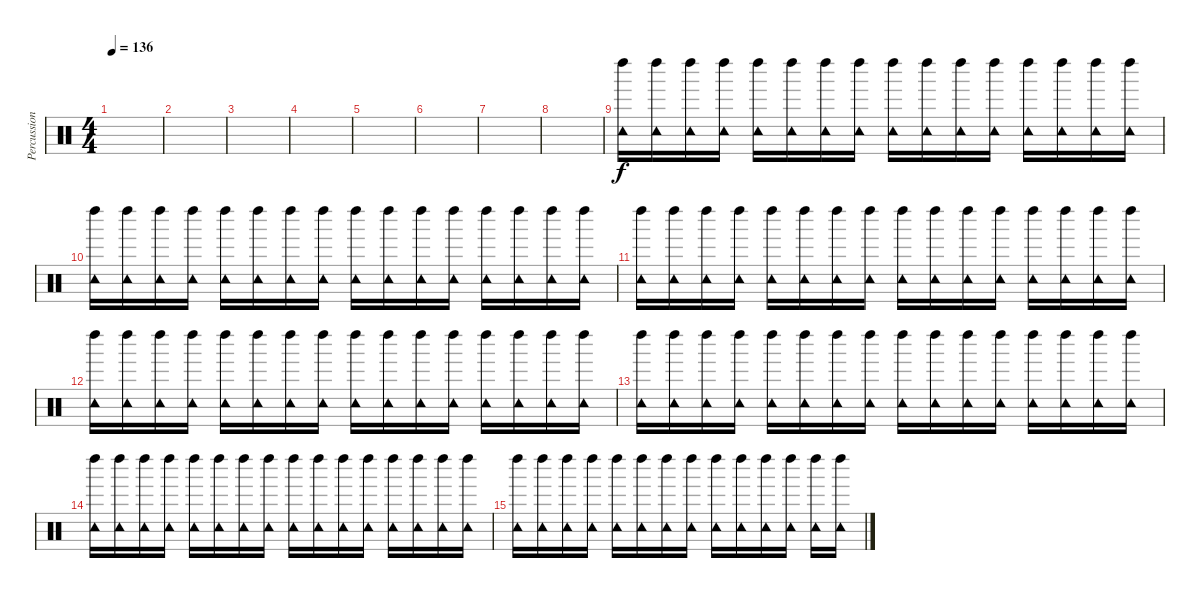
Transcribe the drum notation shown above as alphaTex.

\track ("Percussion" "Percussion") {instrument percussion}
\staff {score}
\articulation defaults
\ts (4 4)
\tempo 136
\clef neutral
\ks c
|
|
|
|
|
|
|
|
("Tambourine (hit)" "Left Maraca (hit)").16 ("Tambourine (hit)" "Left Maraca (hit)").16 ("Tambourine (hit)" "Left Maraca (hit)").16 ("Tambourine (hit)" "Left Maraca (hit)").16 ("Tambourine (hit)" "Left Maraca (hit)").16 ("Tambourine (hit)" "Left Maraca (hit)").16 ("Tambourine (hit)" "Left Maraca (hit)").16 ("Tambourine (hit)" "Left Maraca (hit)").16 ("Tambourine (hit)" "Left Maraca (hit)").16 ("Tambourine (hit)" "Left Maraca (hit)").16 ("Tambourine (hit)" "Left Maraca (hit)").16 ("Tambourine (hit)" "Left Maraca (hit)").16 ("Tambourine (hit)" "Left Maraca (hit)").16 ("Tambourine (hit)" "Left Maraca (hit)").16 ("Tambourine (hit)" "Left Maraca (hit)").16 ("Tambourine (hit)" "Left Maraca (hit)").16 |
("Tambourine (hit)" "Left Maraca (hit)").16 ("Tambourine (hit)" "Left Maraca (hit)").16 ("Tambourine (hit)" "Left Maraca (hit)").16 ("Tambourine (hit)" "Left Maraca (hit)").16 ("Tambourine (hit)" "Left Maraca (hit)").16 ("Tambourine (hit)" "Left Maraca (hit)").16 ("Tambourine (hit)" "Left Maraca (hit)").16 ("Tambourine (hit)" "Left Maraca (hit)").16 ("Tambourine (hit)" "Left Maraca (hit)").16 ("Tambourine (hit)" "Left Maraca (hit)").16 ("Tambourine (hit)" "Left Maraca (hit)").16 ("Tambourine (hit)" "Left Maraca (hit)").16 ("Tambourine (hit)" "Left Maraca (hit)").16 ("Tambourine (hit)" "Left Maraca (hit)").16 ("Tambourine (hit)" "Left Maraca (hit)").16 ("Tambourine (hit)" "Left Maraca (hit)").16 |
("Tambourine (hit)" "Left Maraca (hit)").16 ("Tambourine (hit)" "Left Maraca (hit)").16 ("Tambourine (hit)" "Left Maraca (hit)").16 ("Tambourine (hit)" "Left Maraca (hit)").16 ("Tambourine (hit)" "Left Maraca (hit)").16 ("Tambourine (hit)" "Left Maraca (hit)").16 ("Tambourine (hit)" "Left Maraca (hit)").16 ("Tambourine (hit)" "Left Maraca (hit)").16 ("Tambourine (hit)" "Left Maraca (hit)").16 ("Tambourine (hit)" "Left Maraca (hit)").16 ("Tambourine (hit)" "Left Maraca (hit)").16 ("Tambourine (hit)" "Left Maraca (hit)").16 ("Tambourine (hit)" "Left Maraca (hit)").16 ("Tambourine (hit)" "Left Maraca (hit)").16 ("Tambourine (hit)" "Left Maraca (hit)").16 ("Tambourine (hit)" "Left Maraca (hit)").16 |
("Tambourine (hit)" "Left Maraca (hit)").16 ("Tambourine (hit)" "Left Maraca (hit)").16 ("Tambourine (hit)" "Left Maraca (hit)").16 ("Tambourine (hit)" "Left Maraca (hit)").16 ("Tambourine (hit)" "Left Maraca (hit)").16 ("Tambourine (hit)" "Left Maraca (hit)").16 ("Tambourine (hit)" "Left Maraca (hit)").16 ("Tambourine (hit)" "Left Maraca (hit)").16 ("Tambourine (hit)" "Left Maraca (hit)").16 ("Tambourine (hit)" "Left Maraca (hit)").16 ("Tambourine (hit)" "Left Maraca (hit)").16 ("Tambourine (hit)" "Left Maraca (hit)").16 ("Tambourine (hit)" "Left Maraca (hit)").16 ("Tambourine (hit)" "Left Maraca (hit)").16 ("Tambourine (hit)" "Left Maraca (hit)").16 ("Tambourine (hit)" "Left Maraca (hit)").16 |
("Tambourine (hit)" "Left Maraca (hit)").16 ("Tambourine (hit)" "Left Maraca (hit)").16 ("Tambourine (hit)" "Left Maraca (hit)").16 ("Tambourine (hit)" "Left Maraca (hit)").16 ("Tambourine (hit)" "Left Maraca (hit)").16 ("Tambourine (hit)" "Left Maraca (hit)").16 ("Tambourine (hit)" "Left Maraca (hit)").16 ("Tambourine (hit)" "Left Maraca (hit)").16 ("Tambourine (hit)" "Left Maraca (hit)").16 ("Tambourine (hit)" "Left Maraca (hit)").16 ("Tambourine (hit)" "Left Maraca (hit)").16 ("Tambourine (hit)" "Left Maraca (hit)").16 ("Tambourine (hit)" "Left Maraca (hit)").16 ("Tambourine (hit)" "Left Maraca (hit)").16 ("Tambourine (hit)" "Left Maraca (hit)").16 ("Tambourine (hit)" "Left Maraca (hit)").16 |
("Tambourine (hit)" "Left Maraca (hit)").16 ("Tambourine (hit)" "Left Maraca (hit)").16 ("Tambourine (hit)" "Left Maraca (hit)").16 ("Tambourine (hit)" "Left Maraca (hit)").16 ("Tambourine (hit)" "Left Maraca (hit)").16 ("Tambourine (hit)" "Left Maraca (hit)").16 ("Tambourine (hit)" "Left Maraca (hit)").16 ("Tambourine (hit)" "Left Maraca (hit)").16 ("Tambourine (hit)" "Left Maraca (hit)").16 ("Tambourine (hit)" "Left Maraca (hit)").16 ("Tambourine (hit)" "Left Maraca (hit)").16 ("Tambourine (hit)" "Left Maraca (hit)").16 ("Tambourine (hit)" "Left Maraca (hit)").16 ("Tambourine (hit)" "Left Maraca (hit)").16 ("Tambourine (hit)" "Left Maraca (hit)").16 ("Tambourine (hit)" "Left Maraca (hit)").16 |
("Tambourine (hit)" "Left Maraca (hit)").16 ("Tambourine (hit)" "Left Maraca (hit)").16 ("Tambourine (hit)" "Left Maraca (hit)").16 ("Tambourine (hit)" "Left Maraca (hit)").16 ("Tambourine (hit)" "Left Maraca (hit)").16 ("Tambourine (hit)" "Left Maraca (hit)").16 ("Tambourine (hit)" "Left Maraca (hit)").16 ("Tambourine (hit)" "Left Maraca (hit)").16 ("Tambourine (hit)" "Left Maraca (hit)").16 ("Tambourine (hit)" "Left Maraca (hit)").16 ("Tambourine (hit)" "Left Maraca (hit)").16 ("Tambourine (hit)" "Left Maraca (hit)").16 ("Tambourine (hit)" "Left Maraca (hit)").16 ("Tambourine (hit)" "Left Maraca (hit)").16
